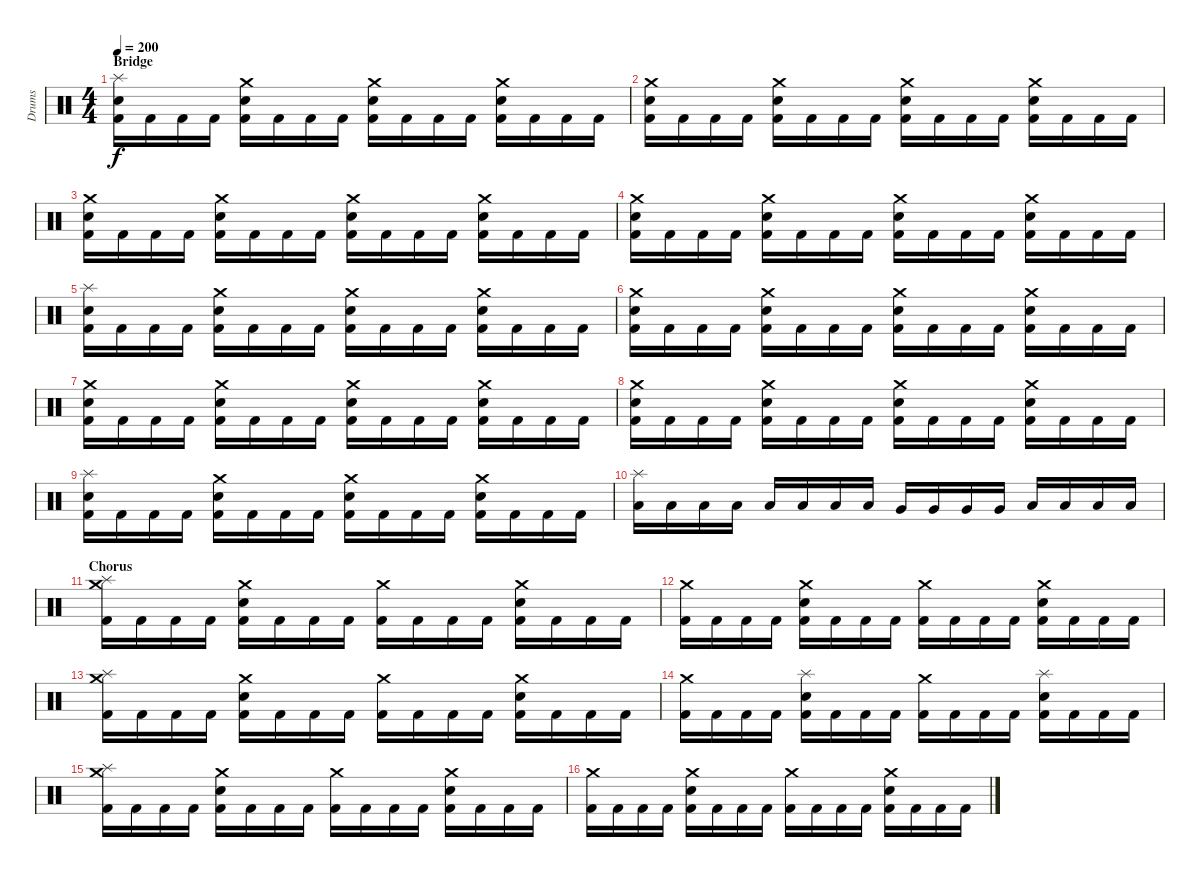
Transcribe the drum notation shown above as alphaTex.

\track ("Drums" "Drums") {instrument percussion}
\staff {score}
\articulation defaults
\ts (4 4)
\section ("" "Bridge")
\tempo 200
\clef neutral
\ks c
("Kick (hit) 2" "Snare (hit) 2" "Splash (hit)").16{dy f} "Kick (hit) 2".16 "Kick (hit) 2".16 "Kick (hit) 2".16 ("Kick (hit) 2" "Crash medium (hit)" "Snare (hit) 2").16 "Kick (hit) 2".16 "Kick (hit) 2".16 "Kick (hit) 2".16 ("Kick (hit) 2" "Crash medium (hit)" "Snare (hit) 2").16 "Kick (hit) 2".16 "Kick (hit) 2".16 "Kick (hit) 2".16 ("Kick (hit) 2" "Crash medium (hit)" "Snare (hit) 2").16 "Kick (hit) 2".16 "Kick (hit) 2".16 "Kick (hit) 2".16 |
("Kick (hit) 2" "Crash medium (hit)" "Snare (hit) 2").16 "Kick (hit) 2".16 "Kick (hit) 2".16 "Kick (hit) 2".16 ("Kick (hit) 2" "Crash medium (hit)" "Snare (hit) 2").16 "Kick (hit) 2".16 "Kick (hit) 2".16 "Kick (hit) 2".16 ("Kick (hit) 2" "Crash medium (hit)" "Snare (hit) 2").16 "Kick (hit) 2".16 "Kick (hit) 2".16 "Kick (hit) 2".16 ("Kick (hit) 2" "Crash medium (hit)" "Snare (hit) 2").16 "Kick (hit) 2".16 "Kick (hit) 2".16 "Kick (hit) 2".16 |
("Kick (hit) 2" "Crash medium (hit)" "Snare (hit) 2").16 "Kick (hit) 2".16 "Kick (hit) 2".16 "Kick (hit) 2".16 ("Kick (hit) 2" "Crash medium (hit)" "Snare (hit) 2").16 "Kick (hit) 2".16 "Kick (hit) 2".16 "Kick (hit) 2".16 ("Kick (hit) 2" "Crash medium (hit)" "Snare (hit) 2").16 "Kick (hit) 2".16 "Kick (hit) 2".16 "Kick (hit) 2".16 ("Kick (hit) 2" "Crash medium (hit)" "Snare (hit) 2").16 "Kick (hit) 2".16 "Kick (hit) 2".16 "Kick (hit) 2".16 |
("Kick (hit) 2" "Crash medium (hit)" "Snare (hit) 2").16 "Kick (hit) 2".16 "Kick (hit) 2".16 "Kick (hit) 2".16 ("Kick (hit) 2" "Crash medium (hit)" "Snare (hit) 2").16 "Kick (hit) 2".16 "Kick (hit) 2".16 "Kick (hit) 2".16 ("Kick (hit) 2" "Crash medium (hit)" "Snare (hit) 2").16 "Kick (hit) 2".16 "Kick (hit) 2".16 "Kick (hit) 2".16 ("Kick (hit) 2" "Crash medium (hit)" "Snare (hit) 2").16 "Kick (hit) 2".16 "Kick (hit) 2".16 "Kick (hit) 2".16 |
("Kick (hit) 2" "Snare (hit) 2" "Splash (hit)").16 "Kick (hit) 2".16 "Kick (hit) 2".16 "Kick (hit) 2".16 ("Kick (hit) 2" "Crash medium (hit)" "Snare (hit) 2").16 "Kick (hit) 2".16 "Kick (hit) 2".16 "Kick (hit) 2".16 ("Kick (hit) 2" "Crash medium (hit)" "Snare (hit) 2").16 "Kick (hit) 2".16 "Kick (hit) 2".16 "Kick (hit) 2".16 ("Kick (hit) 2" "Crash medium (hit)" "Snare (hit) 2").16 "Kick (hit) 2".16 "Kick (hit) 2".16 "Kick (hit) 2".16 |
("Kick (hit) 2" "Crash medium (hit)" "Snare (hit) 2").16 "Kick (hit) 2".16 "Kick (hit) 2".16 "Kick (hit) 2".16 ("Kick (hit) 2" "Crash medium (hit)" "Snare (hit) 2").16 "Kick (hit) 2".16 "Kick (hit) 2".16 "Kick (hit) 2".16 ("Kick (hit) 2" "Crash medium (hit)" "Snare (hit) 2").16 "Kick (hit) 2".16 "Kick (hit) 2".16 "Kick (hit) 2".16 ("Kick (hit) 2" "Crash medium (hit)" "Snare (hit) 2").16 "Kick (hit) 2".16 "Kick (hit) 2".16 "Kick (hit) 2".16 |
("Kick (hit) 2" "Crash medium (hit)" "Snare (hit) 2").16 "Kick (hit) 2".16 "Kick (hit) 2".16 "Kick (hit) 2".16 ("Kick (hit) 2" "Crash medium (hit)" "Snare (hit) 2").16 "Kick (hit) 2".16 "Kick (hit) 2".16 "Kick (hit) 2".16 ("Kick (hit) 2" "Crash medium (hit)" "Snare (hit) 2").16 "Kick (hit) 2".16 "Kick (hit) 2".16 "Kick (hit) 2".16 ("Kick (hit) 2" "Crash medium (hit)" "Snare (hit) 2").16 "Kick (hit) 2".16 "Kick (hit) 2".16 "Kick (hit) 2".16 |
("Kick (hit) 2" "Crash medium (hit)" "Snare (hit) 2").16 "Kick (hit) 2".16 "Kick (hit) 2".16 "Kick (hit) 2".16 ("Kick (hit) 2" "Crash medium (hit)" "Snare (hit) 2").16 "Kick (hit) 2".16 "Kick (hit) 2".16 "Kick (hit) 2".16 ("Kick (hit) 2" "Crash medium (hit)" "Snare (hit) 2").16 "Kick (hit) 2".16 "Kick (hit) 2".16 "Kick (hit) 2".16 ("Kick (hit) 2" "Crash medium (hit)" "Snare (hit) 2").16 "Kick (hit) 2".16 "Kick (hit) 2".16 "Kick (hit) 2".16 |
("Kick (hit) 2" "Snare (hit) 2" "Splash (hit)").16 "Kick (hit) 2".16 "Kick (hit) 2".16 "Kick (hit) 2".16 ("Kick (hit) 2" "Crash medium (hit)" "Snare (hit) 2").16 "Kick (hit) 2".16 "Kick (hit) 2".16 "Kick (hit) 2".16 ("Kick (hit) 2" "Crash medium (hit)" "Snare (hit) 2").16 "Kick (hit) 2".16 "Kick (hit) 2".16 "Kick (hit) 2".16 ("Kick (hit) 2" "Crash medium (hit)" "Snare (hit) 2").16 "Kick (hit) 2".16 "Kick (hit) 2".16 "Kick (hit) 2".16 |
("Low Floor Tom (hit)" "Splash (hit)").16 "Low Floor Tom (hit)".16 "Low Floor Tom (hit)".16 "Low Floor Tom (hit)".16 "Low Floor Tom (hit)".16 "Low Floor Tom (hit)".16 "Low Floor Tom (hit)".16 "Low Floor Tom (hit)".16 "Very Low Tom (hit)".16 "Very Low Tom (hit)".16 "Very Low Tom (hit)".16 "Very Low Tom (hit)".16 "Low Tom (hit)".16 "Low Tom (hit)".16 "Low Tom (hit)".16 "Low Tom (hit)".16 |
\section ("" "Chorus")
("Kick (hit) 2" "Crash medium (hit)" "Splash (hit)").16 "Kick (hit) 2".16 "Kick (hit) 2".16 "Kick (hit) 2".16 ("Kick (hit) 2" "Crash medium (hit)" "Snare (hit) 2").16 "Kick (hit) 2".16 "Kick (hit) 2".16 "Kick (hit) 2".16 ("Kick (hit) 2" "Crash medium (hit)").16 "Kick (hit) 2".16 "Kick (hit) 2".16 "Kick (hit) 2".16 ("Kick (hit) 2" "Crash medium (hit)" "Snare (hit) 2").16 "Kick (hit) 2".16 "Kick (hit) 2".16 "Kick (hit) 2".16 |
("Kick (hit) 2" "Crash medium (hit)").16 "Kick (hit) 2".16 "Kick (hit) 2".16 "Kick (hit) 2".16 ("Kick (hit) 2" "Crash medium (hit)" "Snare (hit) 2").16 "Kick (hit) 2".16 "Kick (hit) 2".16 "Kick (hit) 2".16 ("Kick (hit) 2" "Crash medium (hit)").16 "Kick (hit) 2".16 "Kick (hit) 2".16 "Kick (hit) 2".16 ("Kick (hit) 2" "Crash medium (hit)" "Snare (hit) 2").16 "Kick (hit) 2".16 "Kick (hit) 2".16 "Kick (hit) 2".16 |
("Kick (hit) 2" "Crash medium (hit)" "Splash (hit)").16 "Kick (hit) 2".16 "Kick (hit) 2".16 "Kick (hit) 2".16 ("Kick (hit) 2" "Crash medium (hit)" "Snare (hit) 2").16 "Kick (hit) 2".16 "Kick (hit) 2".16 "Kick (hit) 2".16 ("Kick (hit) 2" "Crash medium (hit)").16 "Kick (hit) 2".16 "Kick (hit) 2".16 "Kick (hit) 2".16 ("Kick (hit) 2" "Crash medium (hit)" "Snare (hit) 2").16 "Kick (hit) 2".16 "Kick (hit) 2".16 "Kick (hit) 2".16 |
("Kick (hit) 2" "Crash medium (hit)").16 "Kick (hit) 2".16 "Kick (hit) 2".16 "Kick (hit) 2".16 ("Kick (hit) 2" "Snare (hit) 2" "Splash (hit)").16 "Kick (hit) 2".16 "Kick (hit) 2".16 "Kick (hit) 2".16 ("Kick (hit) 2" "Crash medium (hit)").16 "Kick (hit) 2".16 "Kick (hit) 2".16 "Kick (hit) 2".16 ("Kick (hit) 2" "Snare (hit) 2" "Splash (hit)").16 "Kick (hit) 2".16 "Kick (hit) 2".16 "Kick (hit) 2".16 |
("Kick (hit) 2" "Crash medium (hit)" "Splash (hit)").16 "Kick (hit) 2".16 "Kick (hit) 2".16 "Kick (hit) 2".16 ("Kick (hit) 2" "Crash medium (hit)" "Snare (hit) 2").16 "Kick (hit) 2".16 "Kick (hit) 2".16 "Kick (hit) 2".16 ("Kick (hit) 2" "Crash medium (hit)").16 "Kick (hit) 2".16 "Kick (hit) 2".16 "Kick (hit) 2".16 ("Kick (hit) 2" "Crash medium (hit)" "Snare (hit) 2").16 "Kick (hit) 2".16 "Kick (hit) 2".16 "Kick (hit) 2".16 |
("Kick (hit) 2" "Crash medium (hit)").16 "Kick (hit) 2".16 "Kick (hit) 2".16 "Kick (hit) 2".16 ("Kick (hit) 2" "Crash medium (hit)" "Snare (hit) 2").16 "Kick (hit) 2".16 "Kick (hit) 2".16 "Kick (hit) 2".16 ("Kick (hit) 2" "Crash medium (hit)").16 "Kick (hit) 2".16 "Kick (hit) 2".16 "Kick (hit) 2".16 ("Kick (hit) 2" "Crash medium (hit)" "Snare (hit) 2").16 "Kick (hit) 2".16 "Kick (hit) 2".16 "Kick (hit) 2".16
